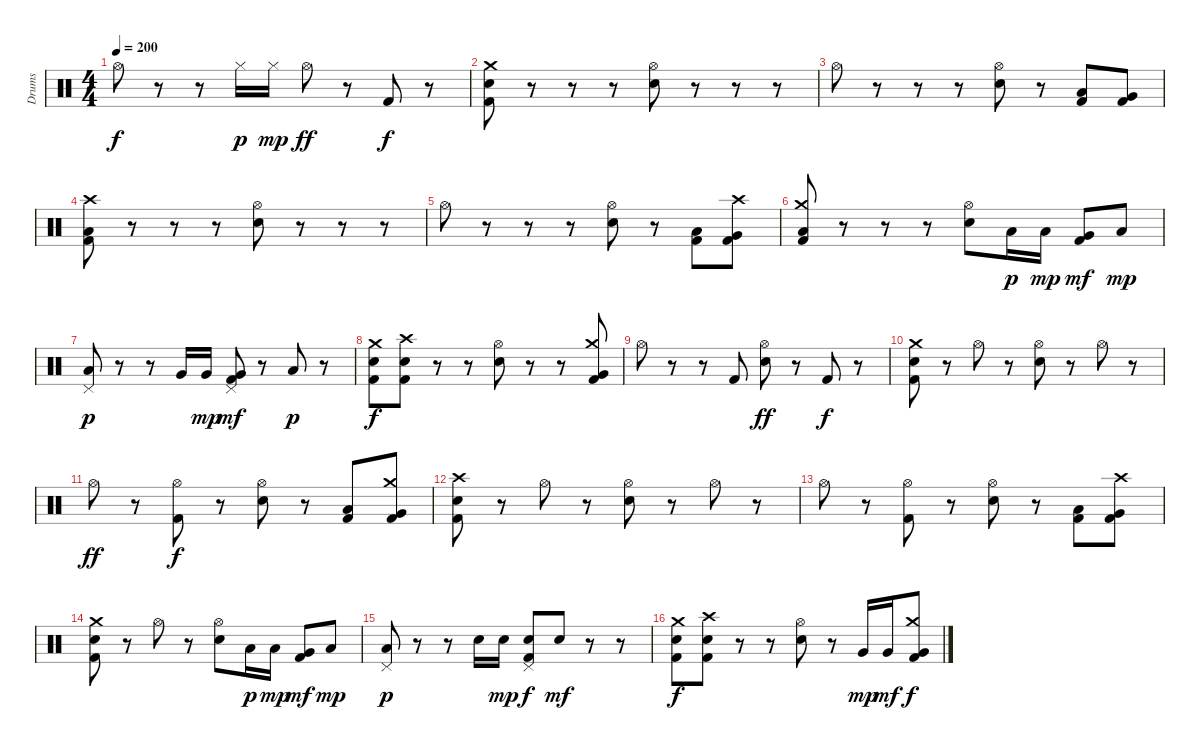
\track ("Drums" "Drums") {instrument percussion}
\staff {score}
\articulation defaults
\ts (4 4)
\tempo 200
\clef neutral
\ks c "Hi-Hat (open)".8{dy f}
r.8 r.8 "Hi-Hat (closed)".16{dy p} "Hi-Hat (closed)".16{dy mp} "Hi-Hat (open)".8{dy ff} r.8 "Kick (hit) 2".8{dy f} r.8 |
("Kick (hit) 2" "Electric Snare (hit)" "Crash medium (hit)").8 r.8 r.8 r.8 ("Electric Snare (hit)" "Hi-Hat (open)").8 r.8 r.8 r.8 |
"Hi-Hat (open)".8 r.8 r.8 r.8 ("Electric Snare (hit)" "Hi-Hat (open)").8 r.8 ("Kick (hit) 2" "Low Tom (hit)").8 ("Kick (hit) 2" "Very Low Tom (hit)").8 |
("Kick (hit) 2" "Low Tom (hit)" "Crash high (hit)").8 r.8 r.8 r.8 ("Electric Snare (hit)" "Hi-Hat (open)").8 r.8 r.8 r.8 |
"Hi-Hat (open)".8 r.8 r.8 r.8 ("Electric Snare (hit)" "Hi-Hat (open)").8 r.8 ("Kick (hit) 2" "Low Tom (hit)").8 ("Kick (hit) 2" "Very Low Tom (hit)" "Crash high (hit)").8 |
("Kick (hit) 2" "Low Floor Tom (hit)" "Crash medium (hit)").8 r.8 r.8 r.8 ("Electric Snare (hit)" "Hi-Hat (open)").8 "Low Tom (hit)".16{dy p} "Low Tom (hit)".16{dy mp} ("Kick (hit) 2" "Very Low Tom (hit)").8{dy mf} "Low Floor Tom (hit)".8{dy mp} |
("Pedal Hi-Hat (hit)" "Low Floor Tom (hit)").8{dy p} r.8 r.8 "Very Low Tom (hit)".16 "Very Low Tom (hit)".16{dy mp} ("Kick (hit) 2" "Pedal Hi-Hat (hit)" "Very Low Tom (hit)").8{dy mf} r.8 "Low Floor Tom (hit)".8{dy p} r.8 |
("Kick (hit) 2" "Electric Snare (hit)" "Crash medium (hit)").8{dy f} ("Kick (hit) 2" "Electric Snare (hit)" "Crash high (hit)").8 r.8 r.8 ("Electric Snare (hit)" "Hi-Hat (open)").8 r.8 r.8 ("Kick (hit) 2" "Very Low Tom (hit)" "Crash medium (hit)").8 |
"Hi-Hat (open)".8 r.8 r.8 "Kick (hit) 2".8 ("Electric Snare (hit)" "Hi-Hat (open)").8{dy ff} r.8 "Kick (hit) 2".8{dy f} r.8 |
("Kick (hit) 2" "Electric Snare (hit)" "Crash medium (hit)").8 r.8 "Hi-Hat (open)".8 r.8 ("Electric Snare (hit)" "Hi-Hat (open)").8 r.8 "Hi-Hat (open)".8 r.8 |
"Hi-Hat (open)".8{dy ff} r.8 ("Kick (hit) 2" "Hi-Hat (open)").8{dy f} r.8 ("Electric Snare (hit)" "Hi-Hat (open)").8 r.8 ("Kick (hit) 2" "Low Tom (hit)").8 ("Kick (hit) 2" "Very Low Tom (hit)" "Crash medium (hit)").8 |
("Kick (hit) 2" "Electric Snare (hit)" "Crash high (hit)").8 r.8 "Hi-Hat (open)".8 r.8 ("Electric Snare (hit)" "Hi-Hat (open)").8 r.8 "Hi-Hat (open)".8 r.8 |
"Hi-Hat (open)".8 r.8 ("Kick (hit) 2" "Hi-Hat (open)").8 r.8 ("Electric Snare (hit)" "Hi-Hat (open)").8 r.8 ("Kick (hit) 2" "Low Tom (hit)").8 ("Kick (hit) 2" "Very Low Tom (hit)" "Crash high (hit)").8 |
("Kick (hit) 2" "Electric Snare (hit)" "Crash medium (hit)").8 r.8 "Hi-Hat (open)".8 r.8 ("Electric Snare (hit)" "Hi-Hat (open)").8 "Low Tom (hit)".16{dy p} "Low Tom (hit)".16{dy mp} ("Kick (hit) 2" "Very Low Tom (hit)").8{dy mf} "Low Floor Tom (hit)".8{dy mp} |
("Pedal Hi-Hat (hit)" "Low Floor Tom (hit)").8{dy p} r.8 r.8 "Electric Snare (hit)".16 "Electric Snare (hit)".16{dy mp} ("Kick (hit) 2" "Pedal Hi-Hat (hit)" "Electric Snare (hit)").8{dy f} "Electric Snare (hit)".8{dy mf} r.8 r.8 |
("Kick (hit) 2" "Electric Snare (hit)" "Crash medium (hit)").8{dy f} ("Kick (hit) 2" "Electric Snare (hit)" "Crash high (hit)").8 r.8 r.8 ("Electric Snare (hit)" "Hi-Hat (open)").8 r.8 "Very Low Tom (hit)".16{dy mp} "Very Low Tom (hit)".16{dy mf} ("Kick (hit) 2" "Very Low Tom (hit)" "Crash medium (hit)").8{dy f}
